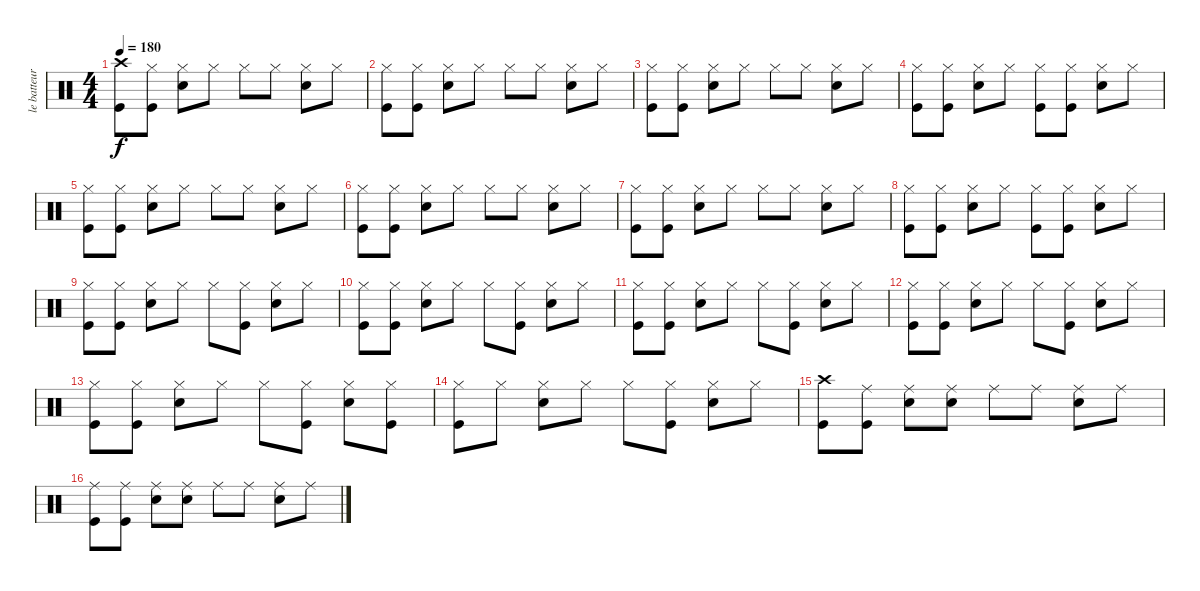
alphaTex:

\track ("le batteur" "le batteur") {instrument percussion}
\staff {score}
\articulation defaults
\ts (4 4)
\tempo 180
\clef neutral
\ks c
("Crash high (hit)" "Kick (hit)").8{dy f} ("Hi-Hat (closed)" "Kick (hit)").8 ("Hi-Hat (closed)" "Snare (hit) 2").8 "Hi-Hat (closed)".8 "Hi-Hat (closed)".8 "Hi-Hat (closed)".8 ("Hi-Hat (closed)" "Snare (hit) 2").8 "Hi-Hat (closed)".8 |
("Hi-Hat (closed)" "Kick (hit)").8 ("Hi-Hat (closed)" "Kick (hit)").8 ("Hi-Hat (closed)" "Snare (hit) 2").8 "Hi-Hat (closed)".8 "Hi-Hat (closed)".8 "Hi-Hat (closed)".8 ("Hi-Hat (closed)" "Snare (hit) 2").8 "Hi-Hat (closed)".8 |
("Hi-Hat (closed)" "Kick (hit)").8 ("Hi-Hat (closed)" "Kick (hit)").8 ("Hi-Hat (closed)" "Snare (hit) 2").8 "Hi-Hat (closed)".8 "Hi-Hat (closed)".8 "Hi-Hat (closed)".8 ("Hi-Hat (closed)" "Snare (hit) 2").8 "Hi-Hat (closed)".8 |
("Hi-Hat (closed)" "Kick (hit)").8 ("Hi-Hat (closed)" "Kick (hit)").8 ("Hi-Hat (closed)" "Snare (hit) 2").8 "Hi-Hat (closed)".8 ("Hi-Hat (closed)" "Kick (hit)").8 ("Hi-Hat (closed)" "Kick (hit)").8 ("Hi-Hat (closed)" "Snare (hit) 2").8 "Hi-Hat (closed)".8 |
("Hi-Hat (closed)" "Kick (hit)").8 ("Hi-Hat (closed)" "Kick (hit)").8 ("Hi-Hat (closed)" "Snare (hit) 2").8 "Hi-Hat (closed)".8 "Hi-Hat (closed)".8 "Hi-Hat (closed)".8 ("Hi-Hat (closed)" "Snare (hit) 2").8 "Hi-Hat (closed)".8 |
("Hi-Hat (closed)" "Kick (hit)").8 ("Hi-Hat (closed)" "Kick (hit)").8 ("Hi-Hat (closed)" "Snare (hit) 2").8 "Hi-Hat (closed)".8 "Hi-Hat (closed)".8 "Hi-Hat (closed)".8 ("Hi-Hat (closed)" "Snare (hit) 2").8 "Hi-Hat (closed)".8 |
("Hi-Hat (closed)" "Kick (hit)").8 ("Hi-Hat (closed)" "Kick (hit)").8 ("Hi-Hat (closed)" "Snare (hit) 2").8 "Hi-Hat (closed)".8 "Hi-Hat (closed)".8 "Hi-Hat (closed)".8 ("Hi-Hat (closed)" "Snare (hit) 2").8 "Hi-Hat (closed)".8 |
("Hi-Hat (closed)" "Kick (hit)").8 ("Hi-Hat (closed)" "Kick (hit)").8 ("Hi-Hat (closed)" "Snare (hit) 2").8 "Hi-Hat (closed)".8 ("Hi-Hat (closed)" "Kick (hit)").8 ("Hi-Hat (closed)" "Kick (hit)").8 ("Hi-Hat (closed)" "Snare (hit) 2").8 "Hi-Hat (closed)".8 |
("Hi-Hat (closed)" "Kick (hit)").8 ("Hi-Hat (closed)" "Kick (hit)").8 ("Hi-Hat (closed)" "Snare (hit) 2").8 "Hi-Hat (closed)".8 "Hi-Hat (closed)".8 ("Hi-Hat (closed)" "Kick (hit)").8 ("Hi-Hat (closed)" "Snare (hit) 2").8 "Hi-Hat (closed)".8 |
("Hi-Hat (closed)" "Kick (hit)").8 ("Hi-Hat (closed)" "Kick (hit)").8 ("Hi-Hat (closed)" "Snare (hit) 2").8 "Hi-Hat (closed)".8 "Hi-Hat (closed)".8 ("Hi-Hat (closed)" "Kick (hit)").8 ("Hi-Hat (closed)" "Snare (hit) 2").8 "Hi-Hat (closed)".8 |
("Hi-Hat (closed)" "Kick (hit)").8 ("Hi-Hat (closed)" "Kick (hit)").8 ("Hi-Hat (closed)" "Snare (hit) 2").8 "Hi-Hat (closed)".8 "Hi-Hat (closed)".8 ("Hi-Hat (closed)" "Kick (hit)").8 ("Hi-Hat (closed)" "Snare (hit) 2").8 "Hi-Hat (closed)".8 |
("Hi-Hat (closed)" "Kick (hit)").8 ("Hi-Hat (closed)" "Kick (hit)").8 ("Hi-Hat (closed)" "Snare (hit) 2").8 "Hi-Hat (closed)".8 "Hi-Hat (closed)".8 ("Hi-Hat (closed)" "Kick (hit)").8 ("Hi-Hat (closed)" "Snare (hit) 2").8 "Hi-Hat (closed)".8 |
("Hi-Hat (closed)" "Kick (hit)").8 ("Hi-Hat (closed)" "Kick (hit)").8 ("Hi-Hat (closed)" "Snare (hit) 2").8 "Hi-Hat (closed)".8 "Hi-Hat (closed)".8 ("Hi-Hat (closed)" "Kick (hit)").8 ("Hi-Hat (closed)" "Snare (hit) 2").8 ("Hi-Hat (closed)" "Kick (hit)").8 |
("Hi-Hat (closed)" "Kick (hit)").8 "Hi-Hat (closed)".8 ("Hi-Hat (closed)" "Snare (hit) 2").8 "Hi-Hat (closed)".8 "Hi-Hat (closed)".8 ("Hi-Hat (closed)" "Kick (hit)").8 ("Hi-Hat (closed)" "Snare (hit) 2").8 "Hi-Hat (closed)".8 |
("Crash high (hit)" "Kick (hit)").8 ("Ride (middle)" "Kick (hit)").8 ("Ride (middle)" "Snare (hit) 2").8 ("Ride (middle)" "Snare (hit) 2").8 "Ride (middle)".8 "Ride (middle)".8 ("Ride (middle)" "Snare (hit) 2").8 "Ride (middle)".8 |
("Ride (middle)" "Kick (hit)").8 ("Ride (middle)" "Kick (hit)").8 ("Ride (middle)" "Snare (hit) 2").8 ("Ride (middle)" "Snare (hit) 2").8 "Ride (middle)".8 "Ride (middle)".8 ("Ride (middle)" "Snare (hit) 2").8 "Ride (middle)".8
